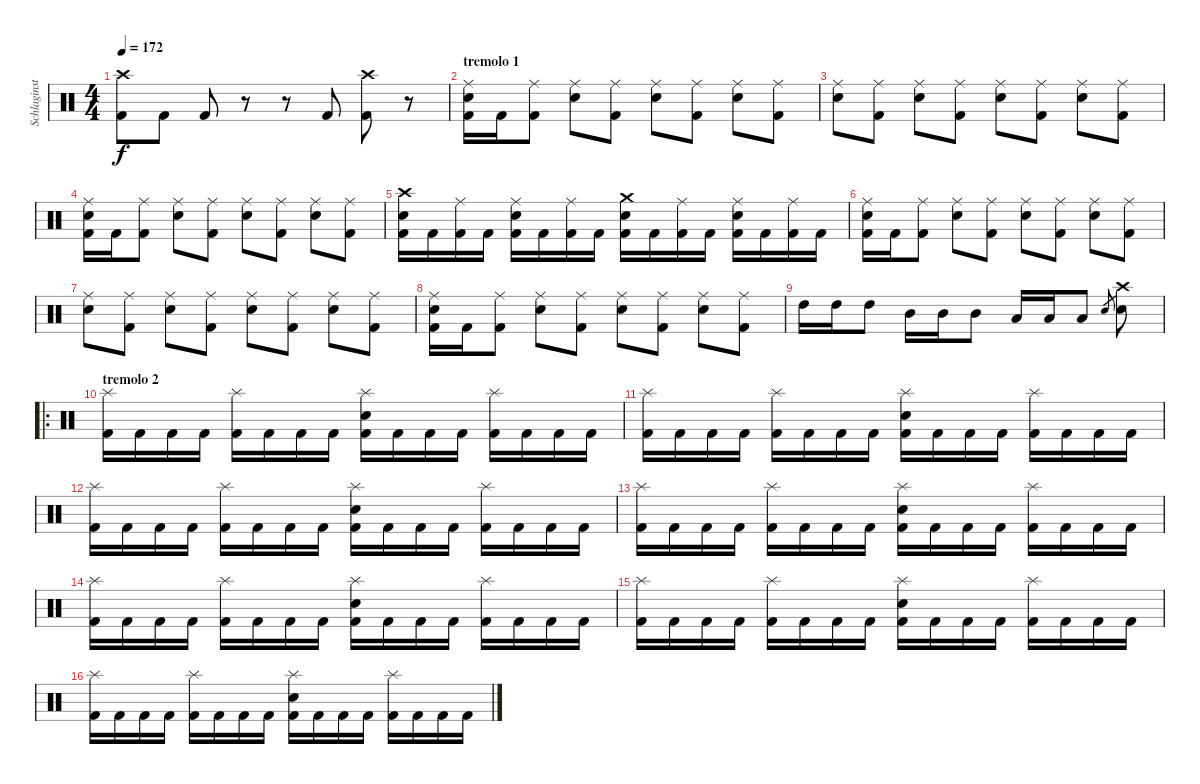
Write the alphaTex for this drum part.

\track ("Schlaginstrumente - Auswahl" "Schlaginst") {instrument percussion}
\staff {score}
\articulation defaults
\ts (4 4)
\tempo 172
\clef neutral
\ks c
("Crash high (hit)" "Kick (hit) 2").8{dy f} "Kick (hit) 2".8 "Kick (hit) 2".8 r.8 r.8 "Kick (hit) 2".8 ("Crash high (hit)" "Kick (hit) 2").8 r.8 |
\section ("" "tremolo 1")
("Electric Snare (hit)" "Ride (middle)" "Kick (hit) 2").16 "Kick (hit) 2".16 ("Ride (middle)" "Kick (hit) 2").8 ("Electric Snare (hit)" "Ride (middle)").8 ("Ride (middle)" "Kick (hit) 2").8 ("Electric Snare (hit)" "Ride (middle)").8 ("Ride (middle)" "Kick (hit) 2").8 ("Electric Snare (hit)" "Ride (middle)").8 ("Ride (middle)" "Kick (hit) 2").8 |
("Electric Snare (hit)" "Ride (middle)").8 ("Ride (middle)" "Kick (hit) 2").8 ("Electric Snare (hit)" "Ride (middle)").8 ("Ride (middle)" "Kick (hit) 2").8 ("Electric Snare (hit)" "Ride (middle)").8 ("Ride (middle)" "Kick (hit) 2").8 ("Electric Snare (hit)" "Ride (middle)").8 ("Ride (middle)" "Kick (hit) 2").8 |
("Electric Snare (hit)" "Ride (middle)" "Kick (hit) 2").16 "Kick (hit) 2".16 ("Ride (middle)" "Kick (hit) 2").8 ("Electric Snare (hit)" "Ride (middle)").8 ("Ride (middle)" "Kick (hit) 2").8 ("Electric Snare (hit)" "Ride (middle)").8 ("Ride (middle)" "Kick (hit) 2").8 ("Electric Snare (hit)" "Ride (middle)").8 ("Ride (middle)" "Kick (hit) 2").8 |
("Electric Snare (hit)" "Crash high (hit)" "Kick (hit) 2").16 "Kick (hit) 2".16 ("Ride (middle)" "Kick (hit) 2").16 "Kick (hit) 2".16 ("Electric Snare (hit)" "Ride (middle)" "Kick (hit) 2").16 "Kick (hit) 2".16 ("Ride (middle)" "Kick (hit) 2").16 "Kick (hit) 2".16 ("Electric Snare (hit)" "Crash medium (hit)" "Kick (hit) 2").16 "Kick (hit) 2".16 ("Ride (middle)" "Kick (hit) 2").16 "Kick (hit) 2".16 ("Electric Snare (hit)" "Ride (middle)" "Kick (hit) 2").16 "Kick (hit) 2".16 ("Ride (middle)" "Kick (hit) 2").16 "Kick (hit) 2".16 |
("Electric Snare (hit)" "Ride (middle)" "Kick (hit) 2").16 "Kick (hit) 2".16 ("Ride (middle)" "Kick (hit) 2").8 ("Electric Snare (hit)" "Ride (middle)").8 ("Ride (middle)" "Kick (hit) 2").8 ("Electric Snare (hit)" "Ride (middle)").8 ("Ride (middle)" "Kick (hit) 2").8 ("Electric Snare (hit)" "Ride (middle)").8 ("Ride (middle)" "Kick (hit) 2").8 |
("Electric Snare (hit)" "Ride (middle)").8 ("Ride (middle)" "Kick (hit) 2").8 ("Electric Snare (hit)" "Ride (middle)").8 ("Ride (middle)" "Kick (hit) 2").8 ("Electric Snare (hit)" "Ride (middle)").8 ("Ride (middle)" "Kick (hit) 2").8 ("Electric Snare (hit)" "Ride (middle)").8 ("Ride (middle)" "Kick (hit) 2").8 |
("Electric Snare (hit)" "Ride (middle)" "Kick (hit) 2").16 "Kick (hit) 2".16 ("Ride (middle)" "Kick (hit) 2").8 ("Electric Snare (hit)" "Ride (middle)").8 ("Ride (middle)" "Kick (hit) 2").8 ("Electric Snare (hit)" "Ride (middle)").8 ("Ride (middle)" "Kick (hit) 2").8 ("Electric Snare (hit)" "Ride (middle)").8 ("Ride (middle)" "Kick (hit) 2").8 |
"High Tom (hit)".16 "High Tom (hit)".16 "High Tom (hit)".8 "Mid Tom (hit)".16 "Mid Tom (hit)".16 "Mid Tom (hit)".8 "Low Tom (hit)".16 "Low Tom (hit)".16 "Low Tom (hit)".8 "Electric Snare (hit)".8{gr} ("Electric Snare (hit)" "Crash high (hit)").8 |
\ro
\section ("" "tremolo 2")
("Splash (hit)" "Kick (hit) 2").16 "Kick (hit) 2".16 "Kick (hit) 2".16 "Kick (hit) 2".16 ("Splash (hit)" "Kick (hit) 2").16 "Kick (hit) 2".16 "Kick (hit) 2".16 "Kick (hit) 2".16 ("Electric Snare (hit)" "Splash (hit)" "Kick (hit) 2").16 "Kick (hit) 2".16 "Kick (hit) 2".16 "Kick (hit) 2".16 ("Splash (hit)" "Kick (hit) 2").16 "Kick (hit) 2".16 "Kick (hit) 2".16 "Kick (hit) 2".16 |
("Splash (hit)" "Kick (hit) 2").16 "Kick (hit) 2".16 "Kick (hit) 2".16 "Kick (hit) 2".16 ("Splash (hit)" "Kick (hit) 2").16 "Kick (hit) 2".16 "Kick (hit) 2".16 "Kick (hit) 2".16 ("Electric Snare (hit)" "Splash (hit)" "Kick (hit) 2").16 "Kick (hit) 2".16 "Kick (hit) 2".16 "Kick (hit) 2".16 ("Splash (hit)" "Kick (hit) 2").16 "Kick (hit) 2".16 "Kick (hit) 2".16 "Kick (hit) 2".16 |
("Splash (hit)" "Kick (hit) 2").16 "Kick (hit) 2".16 "Kick (hit) 2".16 "Kick (hit) 2".16 ("Splash (hit)" "Kick (hit) 2").16 "Kick (hit) 2".16 "Kick (hit) 2".16 "Kick (hit) 2".16 ("Electric Snare (hit)" "Splash (hit)" "Kick (hit) 2").16 "Kick (hit) 2".16 "Kick (hit) 2".16 "Kick (hit) 2".16 ("Splash (hit)" "Kick (hit) 2").16 "Kick (hit) 2".16 "Kick (hit) 2".16 "Kick (hit) 2".16 |
("Splash (hit)" "Kick (hit) 2").16 "Kick (hit) 2".16 "Kick (hit) 2".16 "Kick (hit) 2".16 ("Splash (hit)" "Kick (hit) 2").16 "Kick (hit) 2".16 "Kick (hit) 2".16 "Kick (hit) 2".16 ("Electric Snare (hit)" "Splash (hit)" "Kick (hit) 2").16 "Kick (hit) 2".16 "Kick (hit) 2".16 "Kick (hit) 2".16 ("Splash (hit)" "Kick (hit) 2").16 "Kick (hit) 2".16 "Kick (hit) 2".16 "Kick (hit) 2".16 |
("Splash (hit)" "Kick (hit) 2").16 "Kick (hit) 2".16 "Kick (hit) 2".16 "Kick (hit) 2".16 ("Splash (hit)" "Kick (hit) 2").16 "Kick (hit) 2".16 "Kick (hit) 2".16 "Kick (hit) 2".16 ("Electric Snare (hit)" "Splash (hit)" "Kick (hit) 2").16 "Kick (hit) 2".16 "Kick (hit) 2".16 "Kick (hit) 2".16 ("Splash (hit)" "Kick (hit) 2").16 "Kick (hit) 2".16 "Kick (hit) 2".16 "Kick (hit) 2".16 |
("Splash (hit)" "Kick (hit) 2").16 "Kick (hit) 2".16 "Kick (hit) 2".16 "Kick (hit) 2".16 ("Splash (hit)" "Kick (hit) 2").16 "Kick (hit) 2".16 "Kick (hit) 2".16 "Kick (hit) 2".16 ("Electric Snare (hit)" "Splash (hit)" "Kick (hit) 2").16 "Kick (hit) 2".16 "Kick (hit) 2".16 "Kick (hit) 2".16 ("Splash (hit)" "Kick (hit) 2").16 "Kick (hit) 2".16 "Kick (hit) 2".16 "Kick (hit) 2".16 |
("Splash (hit)" "Kick (hit) 2").16 "Kick (hit) 2".16 "Kick (hit) 2".16 "Kick (hit) 2".16 ("Splash (hit)" "Kick (hit) 2").16 "Kick (hit) 2".16 "Kick (hit) 2".16 "Kick (hit) 2".16 ("Electric Snare (hit)" "Splash (hit)" "Kick (hit) 2").16 "Kick (hit) 2".16 "Kick (hit) 2".16 "Kick (hit) 2".16 ("Splash (hit)" "Kick (hit) 2").16 "Kick (hit) 2".16 "Kick (hit) 2".16 "Kick (hit) 2".16
